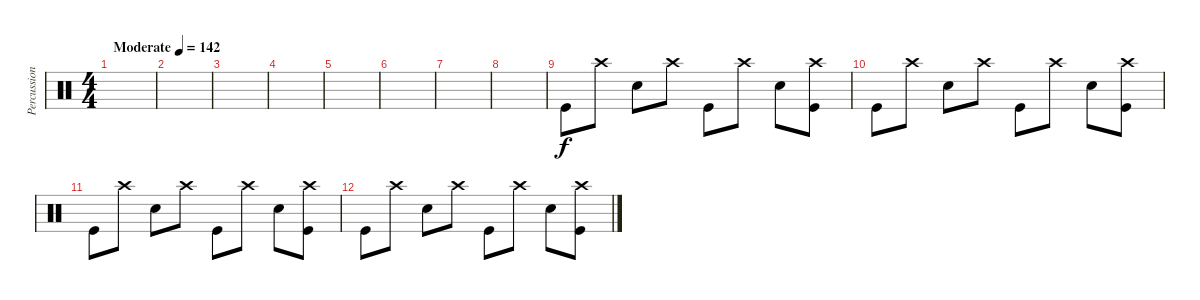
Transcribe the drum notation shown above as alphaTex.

\track ("Percussion" "Percussion") {instrument percussion}
\staff {score}
\articulation defaults
\ts (4 4)
\tempo (142 "Moderate")
\clef neutral
\ks c
|
|
|
|
|
|
|
|
"Kick (hit)".8 "Crash high (hit)".8 "Electric Snare (hit)".8 "Crash high (hit)".8 "Kick (hit)".8 "Crash high (hit)".8 "Electric Snare (hit)".8 ("Crash high (hit)" "Kick (hit)").8 |
"Kick (hit)".8 "Crash high (hit)".8 "Electric Snare (hit)".8 "Crash high (hit)".8 "Kick (hit)".8 "Crash high (hit)".8 "Electric Snare (hit)".8 ("Crash high (hit)" "Kick (hit)").8 |
"Kick (hit)".8 "Crash high (hit)".8 "Electric Snare (hit)".8 "Crash high (hit)".8 "Kick (hit)".8 "Crash high (hit)".8 "Electric Snare (hit)".8 ("Crash high (hit)" "Kick (hit)").8 |
"Kick (hit)".8 "Crash high (hit)".8 "Electric Snare (hit)".8 "Crash high (hit)".8 "Kick (hit)".8 "Crash high (hit)".8 "Electric Snare (hit)".8 ("Crash high (hit)" "Kick (hit)").8
